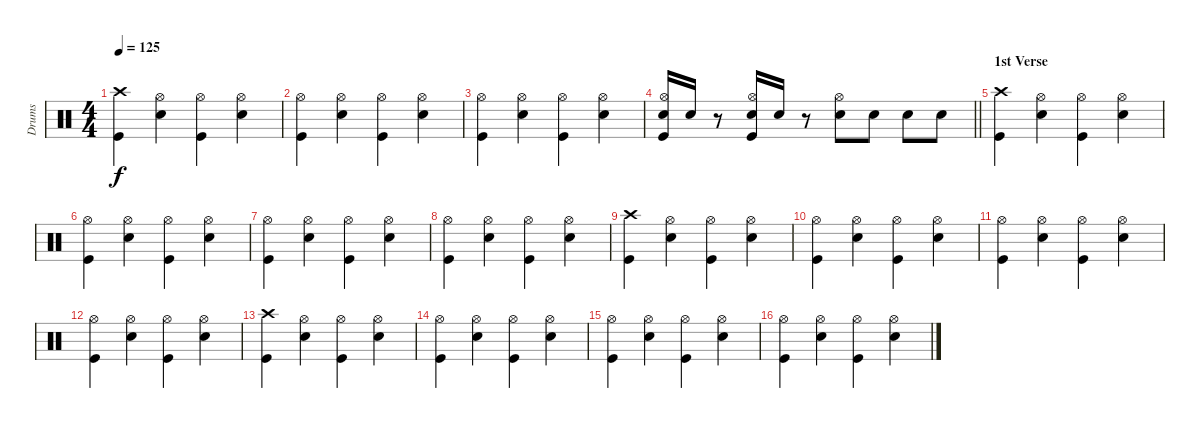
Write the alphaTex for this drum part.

\track ("Drums" "Drums") {instrument percussion}
\staff {score}
\articulation defaults
\ts (4 4)
\tempo 125
\clef neutral
\ks c
("Crash high (hit)" "Kick (hit)").4{dy f} ("Hi-Hat (open)" "Electric Snare (hit)").4 ("Hi-Hat (open)" "Kick (hit)").4 ("Hi-Hat (open)" "Electric Snare (hit)").4 |
("Hi-Hat (open)" "Kick (hit)").4 ("Hi-Hat (open)" "Electric Snare (hit)").4 ("Hi-Hat (open)" "Kick (hit)").4 ("Hi-Hat (open)" "Electric Snare (hit)").4 |
("Hi-Hat (open)" "Kick (hit)").4 ("Hi-Hat (open)" "Electric Snare (hit)").4 ("Hi-Hat (open)" "Kick (hit)").4 ("Hi-Hat (open)" "Electric Snare (hit)").4 |
\barLineRight lightlight
("Hi-Hat (open)" "Electric Snare (hit)" "Kick (hit)").16 "Electric Snare (hit)".16 r.8 ("Hi-Hat (open)" "Electric Snare (hit)" "Kick (hit)").16 "Electric Snare (hit)".16 r.8 ("Hi-Hat (open)" "Electric Snare (hit)").8 "Electric Snare (hit)".8 "Electric Snare (hit)".8 "Electric Snare (hit)".8 |
\section ("" "1st Verse")
("Crash high (hit)" "Kick (hit)").4 ("Hi-Hat (open)" "Electric Snare (hit)").4 ("Hi-Hat (open)" "Kick (hit)").4 ("Hi-Hat (open)" "Electric Snare (hit)").4 |
("Hi-Hat (open)" "Kick (hit)").4 ("Hi-Hat (open)" "Electric Snare (hit)").4 ("Hi-Hat (open)" "Kick (hit)").4 ("Hi-Hat (open)" "Electric Snare (hit)").4 |
("Hi-Hat (open)" "Kick (hit)").4 ("Hi-Hat (open)" "Electric Snare (hit)").4 ("Hi-Hat (open)" "Kick (hit)").4 ("Hi-Hat (open)" "Electric Snare (hit)").4 |
("Hi-Hat (open)" "Kick (hit)").4 ("Hi-Hat (open)" "Electric Snare (hit)").4 ("Hi-Hat (open)" "Kick (hit)").4 ("Hi-Hat (open)" "Electric Snare (hit)").4 |
("Crash high (hit)" "Kick (hit)").4 ("Hi-Hat (open)" "Electric Snare (hit)").4 ("Hi-Hat (open)" "Kick (hit)").4 ("Hi-Hat (open)" "Electric Snare (hit)").4 |
("Hi-Hat (open)" "Kick (hit)").4 ("Hi-Hat (open)" "Electric Snare (hit)").4 ("Hi-Hat (open)" "Kick (hit)").4 ("Hi-Hat (open)" "Electric Snare (hit)").4 |
("Hi-Hat (open)" "Kick (hit)").4 ("Hi-Hat (open)" "Electric Snare (hit)").4 ("Hi-Hat (open)" "Kick (hit)").4 ("Hi-Hat (open)" "Electric Snare (hit)").4 |
("Hi-Hat (open)" "Kick (hit)").4 ("Hi-Hat (open)" "Electric Snare (hit)").4 ("Hi-Hat (open)" "Kick (hit)").4 ("Hi-Hat (open)" "Electric Snare (hit)").4 |
("Crash high (hit)" "Kick (hit)").4 ("Hi-Hat (open)" "Electric Snare (hit)").4 ("Hi-Hat (open)" "Kick (hit)").4 ("Hi-Hat (open)" "Electric Snare (hit)").4 |
("Hi-Hat (open)" "Kick (hit)").4 ("Hi-Hat (open)" "Electric Snare (hit)").4 ("Hi-Hat (open)" "Kick (hit)").4 ("Hi-Hat (open)" "Electric Snare (hit)").4 |
("Hi-Hat (open)" "Kick (hit)").4 ("Hi-Hat (open)" "Electric Snare (hit)").4 ("Hi-Hat (open)" "Kick (hit)").4 ("Hi-Hat (open)" "Electric Snare (hit)").4 |
("Hi-Hat (open)" "Kick (hit)").4 ("Hi-Hat (open)" "Electric Snare (hit)").4 ("Hi-Hat (open)" "Kick (hit)").4 ("Hi-Hat (open)" "Electric Snare (hit)").4
